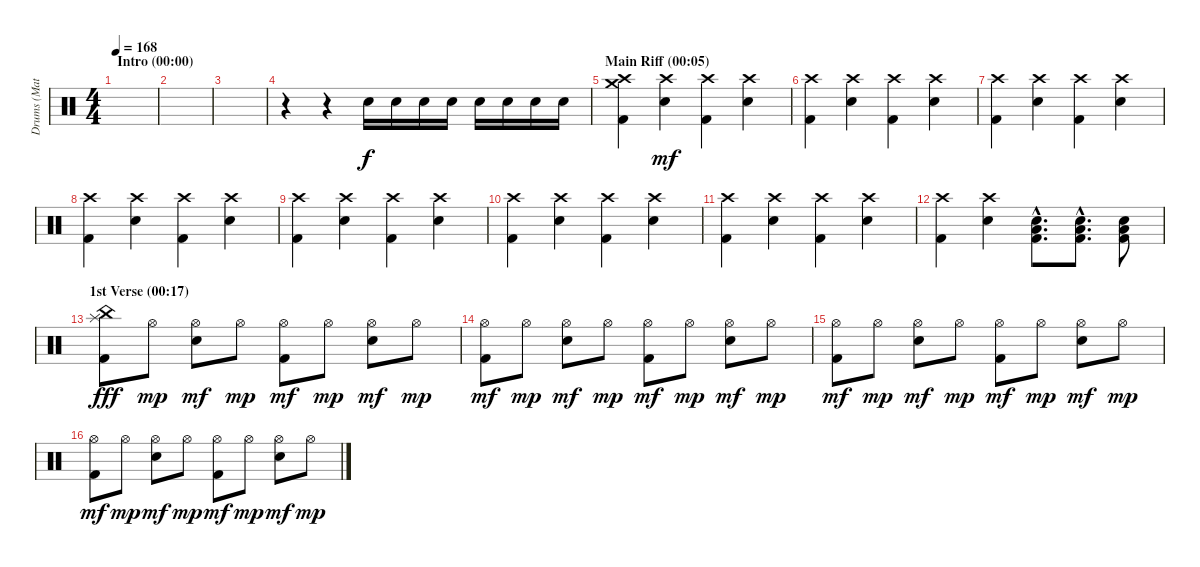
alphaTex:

\track ("Drums (Matt Sorum)" "Drums (Mat") {instrument percussion}
\staff {score}
\articulation defaults
\ts (4 4)
\section ("" "Intro (00:00)")
\tempo 168
\clef neutral
\ks c
|
|
|
r.4 r.4 "Electric Snare (hit)".16 "Electric Snare (hit)".16 "Electric Snare (hit)".16 "Electric Snare (hit)".16 "Electric Snare (hit)".16 "Electric Snare (hit)".16 "Electric Snare (hit)".16 "Electric Snare (hit)".16 |
\section ("" "Main Riff (00:05)")
("Crash high (hit)" "Crash medium (hit)" "Kick (hit) 2").4 ("Crash high (hit)" "Electric Snare (hit)").4{dy mf} ("Crash high (hit)" "Kick (hit) 2").4 ("Crash high (hit)" "Electric Snare (hit)").4 |
("Crash high (hit)" "Kick (hit) 2").4 ("Crash high (hit)" "Electric Snare (hit)").4 ("Crash high (hit)" "Kick (hit) 2").4 ("Crash high (hit)" "Electric Snare (hit)").4 |
("Crash high (hit)" "Kick (hit) 2").4 ("Crash high (hit)" "Electric Snare (hit)").4 ("Crash high (hit)" "Kick (hit) 2").4 ("Crash high (hit)" "Electric Snare (hit)").4 |
("Crash high (hit)" "Kick (hit) 2").4 ("Crash high (hit)" "Electric Snare (hit)").4 ("Crash high (hit)" "Kick (hit) 2").4 ("Crash high (hit)" "Electric Snare (hit)").4 |
("Crash high (hit)" "Kick (hit) 2").4 ("Crash high (hit)" "Electric Snare (hit)").4 ("Crash high (hit)" "Kick (hit) 2").4 ("Crash high (hit)" "Electric Snare (hit)").4 |
("Crash high (hit)" "Kick (hit) 2").4 ("Crash high (hit)" "Electric Snare (hit)").4 ("Crash high (hit)" "Kick (hit) 2").4 ("Crash high (hit)" "Electric Snare (hit)").4 |
("Crash high (hit)" "Kick (hit) 2").4 ("Crash high (hit)" "Electric Snare (hit)").4 ("Crash high (hit)" "Kick (hit) 2").4 ("Crash high (hit)" "Electric Snare (hit)").4 |
("Crash high (hit)" "Kick (hit) 2").4 ("Crash high (hit)" "Electric Snare (hit)").4 ("Electric Snare (hit)"{hac} "Low Tom (hit)"{hac} "Kick (hit) 2"{hac}).8{d} ("Electric Snare (hit)"{hac} "Low Tom (hit)"{hac} "Kick (hit) 2"{hac}).8{d} ("Electric Snare (hit)" "Low Tom (hit)" "Kick (hit) 2").8 |
\section ("" "1st Verse (00:17)")
("China (hit)" "Splash (hit)" "Kick (hit) 2").8{dy fff} "Hi-Hat (open)".8{dy mp} ("Hi-Hat (open)" "Electric Snare (hit)").8{dy mf} "Hi-Hat (open)".8{dy mp} ("Hi-Hat (open)" "Kick (hit) 2").8{dy mf} "Hi-Hat (open)".8{dy mp} ("Hi-Hat (open)" "Electric Snare (hit)").8{dy mf} "Hi-Hat (open)".8{dy mp} |
("Hi-Hat (open)" "Kick (hit) 2").8{dy mf} "Hi-Hat (open)".8{dy mp} ("Hi-Hat (open)" "Electric Snare (hit)").8{dy mf} "Hi-Hat (open)".8{dy mp} ("Hi-Hat (open)" "Kick (hit) 2").8{dy mf} "Hi-Hat (open)".8{dy mp} ("Hi-Hat (open)" "Electric Snare (hit)").8{dy mf} "Hi-Hat (open)".8{dy mp} |
("Hi-Hat (open)" "Kick (hit) 2").8{dy mf} "Hi-Hat (open)".8{dy mp} ("Hi-Hat (open)" "Electric Snare (hit)").8{dy mf} "Hi-Hat (open)".8{dy mp} ("Hi-Hat (open)" "Kick (hit) 2").8{dy mf} "Hi-Hat (open)".8{dy mp} ("Hi-Hat (open)" "Electric Snare (hit)").8{dy mf} "Hi-Hat (open)".8{dy mp} |
("Hi-Hat (open)" "Kick (hit) 2").8{dy mf} "Hi-Hat (open)".8{dy mp} ("Hi-Hat (open)" "Electric Snare (hit)").8{dy mf} "Hi-Hat (open)".8{dy mp} ("Hi-Hat (open)" "Kick (hit) 2").8{dy mf} "Hi-Hat (open)".8{dy mp} ("Hi-Hat (open)" "Electric Snare (hit)").8{dy mf} "Hi-Hat (open)".8{dy mp}
